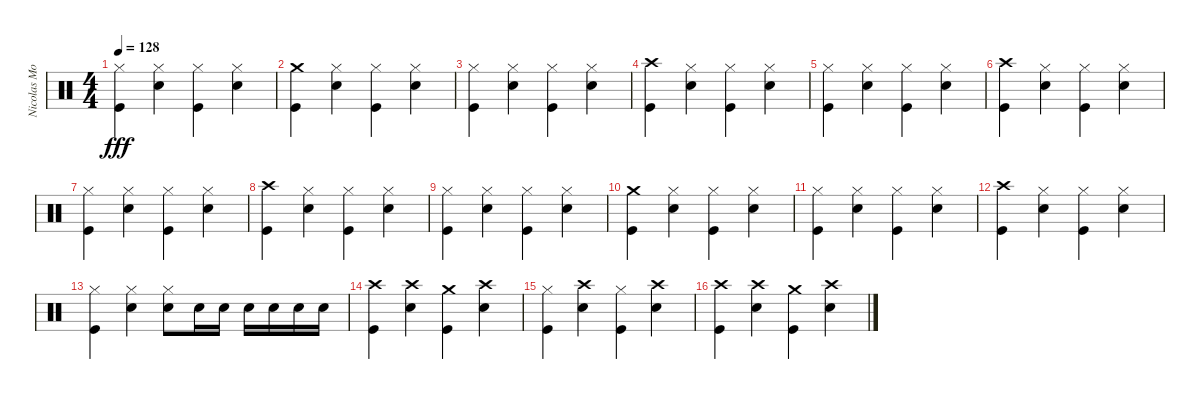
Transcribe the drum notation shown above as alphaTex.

\track ("Nicolas Mosquera" "Nicolas Mo") {mute instrument percussion}
\staff {score}
\articulation defaults
\ts (4 4)
\tempo 128
\clef neutral
\ks c
("Kick (hit)" "Hi-Hat (closed)").4{dy fff} ("Snare (hit) 2" "Hi-Hat (closed)").4 ("Kick (hit)" "Hi-Hat (closed)").4 ("Snare (hit) 2" "Hi-Hat (closed)").4 |
("Kick (hit)" "Crash medium (hit)").4 ("Hi-Hat (closed)" "Snare (hit) 2").4 ("Hi-Hat (closed)" "Kick (hit)").4 ("Hi-Hat (closed)" "Snare (hit) 2").4 |
("Kick (hit)" "Hi-Hat (closed)").4 ("Snare (hit) 2" "Hi-Hat (closed)").4 ("Kick (hit)" "Hi-Hat (closed)").4 ("Snare (hit) 2" "Hi-Hat (closed)").4 |
("Kick (hit)" "Crash high (hit)").4 ("Hi-Hat (closed)" "Snare (hit) 2").4 ("Hi-Hat (closed)" "Kick (hit)").4 ("Hi-Hat (closed)" "Snare (hit) 2").4 |
("Hi-Hat (closed)" "Kick (hit)").4 ("Hi-Hat (closed)" "Snare (hit) 2").4 ("Hi-Hat (closed)" "Kick (hit)").4 ("Hi-Hat (closed)" "Snare (hit) 2").4 |
("Crash high (hit)" "Kick (hit)").4 ("Snare (hit) 2" "Hi-Hat (closed)").4 ("Kick (hit)" "Hi-Hat (closed)").4 ("Snare (hit) 2" "Hi-Hat (closed)").4 |
("Hi-Hat (closed)" "Kick (hit)").4 ("Snare (hit) 2" "Hi-Hat (closed)").4 ("Kick (hit)" "Hi-Hat (closed)").4 ("Snare (hit) 2" "Hi-Hat (closed)").4 |
("Kick (hit)" "Crash high (hit)").4 ("Snare (hit) 2" "Hi-Hat (closed)").4 ("Kick (hit)" "Hi-Hat (closed)").4 ("Snare (hit) 2" "Hi-Hat (closed)").4 |
("Kick (hit)" "Hi-Hat (closed)").4 ("Snare (hit) 2" "Hi-Hat (closed)").4 ("Kick (hit)" "Hi-Hat (closed)").4 ("Snare (hit) 2" "Hi-Hat (closed)").4 |
("Kick (hit)" "Crash medium (hit)").4 ("Hi-Hat (closed)" "Snare (hit) 2").4 ("Hi-Hat (closed)" "Kick (hit)").4 ("Hi-Hat (closed)" "Snare (hit) 2").4 |
("Kick (hit)" "Hi-Hat (closed)").4 ("Snare (hit) 2" "Hi-Hat (closed)").4 ("Kick (hit)" "Hi-Hat (closed)").4 ("Snare (hit) 2" "Hi-Hat (closed)").4 |
("Kick (hit)" "Crash high (hit)").4 ("Hi-Hat (closed)" "Snare (hit) 2").4 ("Hi-Hat (closed)" "Kick (hit)").4 ("Hi-Hat (closed)" "Snare (hit) 2").4 |
("Kick (hit)" "Hi-Hat (closed)").4 ("Hi-Hat (closed)" "Snare (hit) 2").4 ("Snare (hit) 2" "Hi-Hat (closed)").8 "Snare (hit) 2".16 "Snare (hit) 2".16 "Snare (hit) 2".16 "Snare (hit) 2".16 "Snare (hit) 2".16 "Snare (hit) 2".16 |
("Kick (hit)" "Crash high (hit)").4 ("Crash high (hit)" "Snare (hit) 2").4 ("Kick (hit)" "Crash medium (hit)").4 ("Crash high (hit)" "Snare (hit) 2").4 |
("Kick (hit)" "Hi-Hat (closed)").4 ("Crash high (hit)" "Snare (hit) 2").4 ("Kick (hit)" "Hi-Hat (closed)").4 ("Snare (hit) 2" "Crash high (hit)").4 |
("Kick (hit)" "Crash high (hit)").4 ("Crash high (hit)" "Snare (hit) 2").4 ("Kick (hit)" "Crash medium (hit)").4 ("Crash high (hit)" "Snare (hit) 2").4
